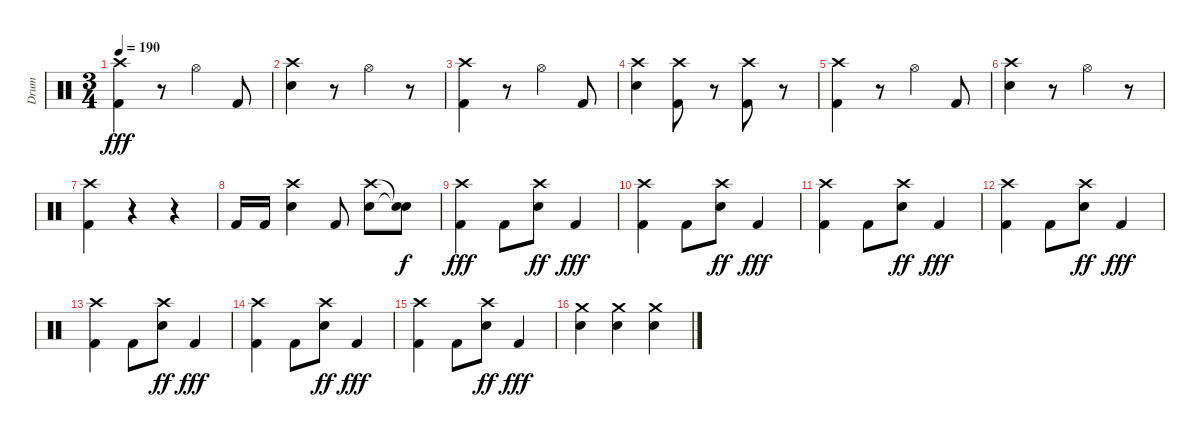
\track ("Drum" "Drum") {instrument percussion}
\staff {score}
\articulation defaults
\ts (3 4)
\tempo 190
\clef neutral
\ks c
("Crash high (hit)" "Kick (hit) 2").4{dy fff} r.8 "Hi-Hat (open)".4 "Kick (hit) 2".8 |
("Crash high (hit)" "Snare (hit) 2").4 r.8 "Hi-Hat (open)".4 r.8 |
("Crash high (hit)" "Kick (hit) 2").4 r.8 "Hi-Hat (open)".4 "Kick (hit) 2".8 |
("Crash high (hit)" "Snare (hit) 2").4 ("Crash high (hit)" "Kick (hit) 2").8 r.8 ("Crash high (hit)" "Kick (hit) 2").8 r.8 |
("Crash high (hit)" "Kick (hit) 2").4 r.8 "Hi-Hat (open)".4 "Kick (hit) 2".8 |
("Crash high (hit)" "Snare (hit) 2").4 r.8 "Hi-Hat (open)".4 r.8 |
("Crash high (hit)" "Kick (hit) 2").4 r.4 r.4 |
"Kick (hit) 2".16 "Kick (hit) 2".16 ("Crash high (hit)" "Snare (hit) 2").4 "Kick (hit) 2".8 ("Crash high (hit)" "Snare (hit) 2").8 ("Snare (hit)"{t} "Snare (hit)"{t}).8{dy f} |
("Crash high (hit)" "Kick (hit) 2").4{dy fff} "Kick (hit) 2".8 ("Crash high (hit)" "Snare (hit) 2").8{dy ff} "Kick (hit) 2".4{dy fff} |
("Crash high (hit)" "Kick (hit) 2").4 "Kick (hit) 2".8 ("Crash high (hit)" "Snare (hit) 2").8{dy ff} "Kick (hit) 2".4{dy fff} |
("Crash high (hit)" "Kick (hit) 2").4 "Kick (hit) 2".8 ("Crash high (hit)" "Snare (hit) 2").8{dy ff} "Kick (hit) 2".4{dy fff} |
("Crash high (hit)" "Kick (hit) 2").4 "Kick (hit) 2".8 ("Crash high (hit)" "Snare (hit) 2").8{dy ff} "Kick (hit) 2".4{dy fff} |
("Crash high (hit)" "Kick (hit) 2").4 "Kick (hit) 2".8 ("Crash high (hit)" "Snare (hit) 2").8{dy ff} "Kick (hit) 2".4{dy fff} |
("Crash high (hit)" "Kick (hit) 2").4 "Kick (hit) 2".8 ("Crash high (hit)" "Snare (hit) 2").8{dy ff} "Kick (hit) 2".4{dy fff} |
("Crash high (hit)" "Kick (hit) 2").4 "Kick (hit) 2".8 ("Crash high (hit)" "Snare (hit) 2").8{dy ff} "Kick (hit) 2".4{dy fff} |
("Crash medium (hit)" "Snare (hit) 2").4 ("Crash medium (hit)" "Snare (hit) 2").4 ("Crash medium (hit)" "Snare (hit) 2").4
